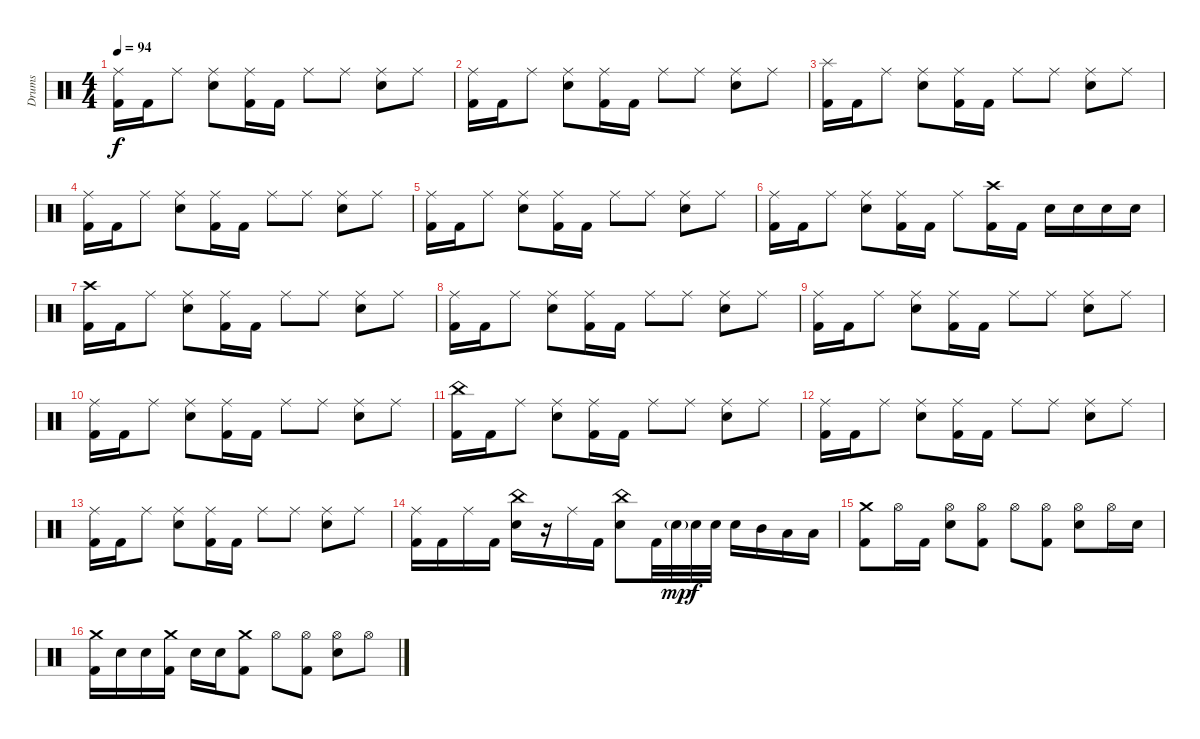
\track ("Drums" "Drums") {instrument percussion}
\staff {score}
\articulation defaults
\ts (4 4)
\tempo 94
\clef neutral
\ks c
("Ride (middle)" "Kick (hit) 2").16{dy f} "Kick (hit) 2".16 "Ride (middle)".8 ("Ride (middle)" "Electric Snare (hit)").8 ("Ride (middle)" "Kick (hit) 2").16 "Kick (hit) 2".16 "Ride (middle)".8 "Ride (middle)".8 ("Ride (middle)" "Electric Snare (hit)").8 "Ride (middle)".8 |
("Ride (middle)" "Kick (hit) 2").16 "Kick (hit) 2".16 "Ride (middle)".8 ("Ride (middle)" "Electric Snare (hit)").8 ("Ride (middle)" "Kick (hit) 2").16 "Kick (hit) 2".16 "Ride (middle)".8 "Ride (middle)".8 ("Ride (middle)" "Electric Snare (hit)").8 "Ride (middle)".8 |
("Splash (hit)" "Kick (hit) 2").16 "Kick (hit) 2".16 "Ride (middle)".8 ("Ride (middle)" "Electric Snare (hit)").8 ("Ride (middle)" "Kick (hit) 2").16 "Kick (hit) 2".16 "Ride (middle)".8 "Ride (middle)".8 ("Ride (middle)" "Electric Snare (hit)").8 "Ride (middle)".8 |
("Ride (middle)" "Kick (hit) 2").16 "Kick (hit) 2".16 "Ride (middle)".8 ("Ride (middle)" "Electric Snare (hit)").8 ("Ride (middle)" "Kick (hit) 2").16 "Kick (hit) 2".16 "Ride (middle)".8 "Ride (middle)".8 ("Ride (middle)" "Electric Snare (hit)").8 "Ride (middle)".8 |
("Ride (middle)" "Kick (hit) 2").16 "Kick (hit) 2".16 "Ride (middle)".8 ("Ride (middle)" "Electric Snare (hit)").8 ("Ride (middle)" "Kick (hit) 2").16 "Kick (hit) 2".16 "Ride (middle)".8 "Ride (middle)".8 ("Ride (middle)" "Electric Snare (hit)").8 "Ride (middle)".8 |
("Ride (middle)" "Kick (hit) 2").16 "Kick (hit) 2".16 "Ride (middle)".8 ("Ride (middle)" "Electric Snare (hit)").8 ("Ride (middle)" "Kick (hit) 2").16 "Kick (hit) 2".16 "Ride (middle)".8 ("Crash high (hit)" "Kick (hit) 2").16 "Kick (hit) 2".16 "Electric Snare (hit)".16 "Electric Snare (hit)".16 "Electric Snare (hit)".16 "Electric Snare (hit)".16 |
("Crash high (hit)" "Kick (hit) 2").16 "Kick (hit) 2".16 "Ride (middle)".8 ("Ride (middle)" "Electric Snare (hit)").8 ("Ride (middle)" "Kick (hit) 2").16 "Kick (hit) 2".16 "Ride (middle)".8 "Ride (middle)".8 ("Ride (middle)" "Electric Snare (hit)").8 "Ride (middle)".8 |
("Ride (middle)" "Kick (hit) 2").16 "Kick (hit) 2".16 "Ride (middle)".8 ("Ride (middle)" "Electric Snare (hit)").8 ("Ride (middle)" "Kick (hit) 2").16 "Kick (hit) 2".16 "Ride (middle)".8 "Ride (middle)".8 ("Ride (middle)" "Electric Snare (hit)").8 "Ride (middle)".8 |
("Ride (middle)" "Kick (hit) 2").16 "Kick (hit) 2".16 "Ride (middle)".8 ("Ride (middle)" "Electric Snare (hit)").8 ("Ride (middle)" "Kick (hit) 2").16 "Kick (hit) 2".16 "Ride (middle)".8 "Ride (middle)".8 ("Ride (middle)" "Electric Snare (hit)").8 "Ride (middle)".8 |
("Ride (middle)" "Kick (hit) 2").16 "Kick (hit) 2".16 "Ride (middle)".8 ("Ride (middle)" "Electric Snare (hit)").8 ("Ride (middle)" "Kick (hit) 2").16 "Kick (hit) 2".16 "Ride (middle)".8 "Ride (middle)".8 ("Ride (middle)" "Electric Snare (hit)").8 "Ride (middle)".8 |
("China (hit)" "Kick (hit) 2").16 "Kick (hit) 2".16 "Ride (middle)".8 ("Ride (middle)" "Electric Snare (hit)").8 ("Ride (middle)" "Kick (hit) 2").16 "Kick (hit) 2".16 "Ride (middle)".8 "Ride (middle)".8 ("Ride (middle)" "Electric Snare (hit)").8 "Ride (middle)".8 |
("Ride (middle)" "Kick (hit) 2").16 "Kick (hit) 2".16 "Ride (middle)".8 ("Ride (middle)" "Electric Snare (hit)").8 ("Ride (middle)" "Kick (hit) 2").16 "Kick (hit) 2".16 "Ride (middle)".8 "Ride (middle)".8 ("Ride (middle)" "Electric Snare (hit)").8 "Ride (middle)".8 |
("Ride (middle)" "Kick (hit) 2").16 "Kick (hit) 2".16 "Ride (middle)".8 ("Ride (middle)" "Electric Snare (hit)").8 ("Ride (middle)" "Kick (hit) 2").16 "Kick (hit) 2".16 "Ride (middle)".8 "Ride (middle)".8 ("Ride (middle)" "Electric Snare (hit)").8 "Ride (middle)".8 |
("Ride (middle)" "Kick (hit) 2").16 "Kick (hit) 2".16 "Ride (middle)".16 "Kick (hit) 2".16 ("China (hit)" "Electric Snare (hit)").16 r.16 "Ride (middle)".16 "Kick (hit) 2".16 ("China (hit)" "Electric Snare (hit)").8 "Kick (hit) 2".32 "Electric Snare (hit)"{g}.32{dy mp} "Electric Snare (hit)".32{dy f} "Electric Snare (hit)".32 "Electric Snare (hit)".16 "Mid Tom (hit)".16 "Low Tom (hit)".16 "Low Tom (hit)".16 |
("Crash medium (hit)" "Kick (hit) 2").8 "Hi-Hat (open)".16 "Kick (hit) 2".16 ("Hi-Hat (open)" "Electric Snare (hit)").8 ("Hi-Hat (open)" "Kick (hit) 2").8 "Hi-Hat (open)".8 ("Hi-Hat (open)" "Kick (hit) 2").8 ("Hi-Hat (open)" "Electric Snare (hit)").8 "Hi-Hat (open)".16 "Electric Snare (hit)".16 |
("Crash medium (hit)" "Kick (hit) 2").16 "Electric Snare (hit)".16 "Electric Snare (hit)".16 ("Crash medium (hit)" "Kick (hit) 2").16 "Electric Snare (hit)".16 "Electric Snare (hit)".16 ("Crash medium (hit)" "Kick (hit) 2").8 "Hi-Hat (open)".8 ("Hi-Hat (open)" "Kick (hit) 2").8 ("Hi-Hat (open)" "Electric Snare (hit)").8 "Hi-Hat (open)".8
